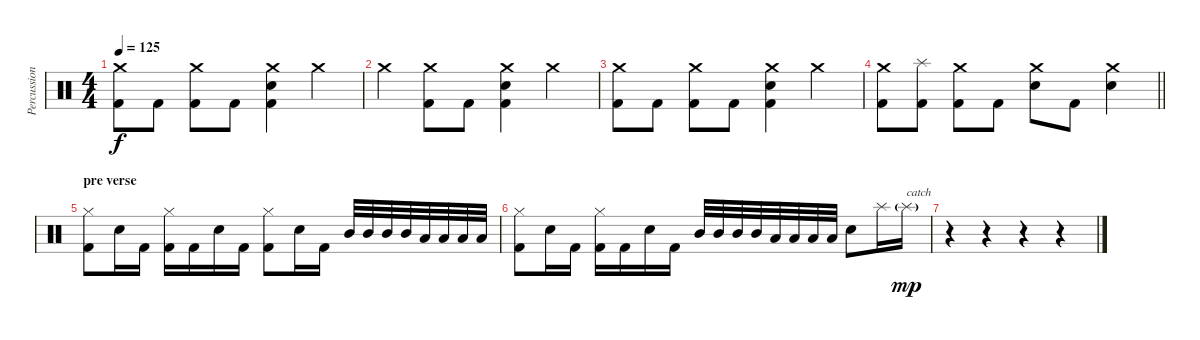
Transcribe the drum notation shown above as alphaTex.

\track ("Percussion" "Percussion") {instrument percussion}
\staff {score}
\articulation defaults
\ts (4 4)
\tempo 125
\clef neutral
\ks c
("Crash medium (hit)" "Kick (hit) 2").8{dy f} "Kick (hit) 2".8 ("Crash medium (hit)" "Kick (hit) 2").8 "Kick (hit) 2".8 ("Crash medium (hit)" "Electric Snare (hit)" "Kick (hit) 2").4 "Crash medium (hit)".4 |
"Crash medium (hit)".4 ("Crash medium (hit)" "Kick (hit) 2").8 "Kick (hit) 2".8 ("Crash medium (hit)" "Electric Snare (hit)" "Kick (hit) 2").4 "Crash medium (hit)".4 |
("Crash medium (hit)" "Kick (hit) 2").8 "Kick (hit) 2".8 ("Crash medium (hit)" "Kick (hit) 2").8 "Kick (hit) 2".8 ("Crash medium (hit)" "Electric Snare (hit)" "Kick (hit) 2").4 "Crash medium (hit)".4 |
\barLineRight lightlight
("Crash medium (hit)" "Kick (hit) 2").8 ("Splash (hit)" "Kick (hit) 2").8 ("Crash medium (hit)" "Kick (hit) 2").8 "Kick (hit) 2".8 ("Crash medium (hit)" "Electric Snare (hit)").8 "Kick (hit) 2".8 ("Crash medium (hit)" "Electric Snare (hit)").4 |
\section ("" "pre verse")
("Hi-Hat (closed)" "Kick (hit) 2").8 "Electric Snare (hit)".16 "Kick (hit) 2".16 ("Hi-Hat (closed)" "Kick (hit) 2").16 "Kick (hit) 2".16 "Electric Snare (hit)".16 "Kick (hit) 2".16 ("Hi-Hat (closed)" "Kick (hit) 2").8 "Electric Snare (hit)".16 "Kick (hit) 2".16 "Mid Tom (hit)".32 "Mid Tom (hit)".32 "Mid Tom (hit)".32 "Mid Tom (hit)".32 "Low Tom (hit)".32 "Low Tom (hit)".32 "Low Tom (hit)".32 "Low Tom (hit)".32 |
("Hi-Hat (closed)" "Kick (hit) 2").8 "Electric Snare (hit)".16 "Kick (hit) 2".16 ("Hi-Hat (closed)" "Kick (hit) 2").16 "Kick (hit) 2".16 "Electric Snare (hit)".16 "Kick (hit) 2".16 "Mid Tom (hit)".32 "Mid Tom (hit)".32 "Mid Tom (hit)".32 "Mid Tom (hit)".32 "Low Tom (hit)".32 "Low Tom (hit)".32 "Low Tom (hit)".32 "Low Tom (hit)".32 "Electric Snare (hit)".8 "Splash (hit)".16 "Splash (hit)"{g}.16{txt "catch" dy mp volume 0} |
r.4 r.4 r.4 r.4{volume 13}
